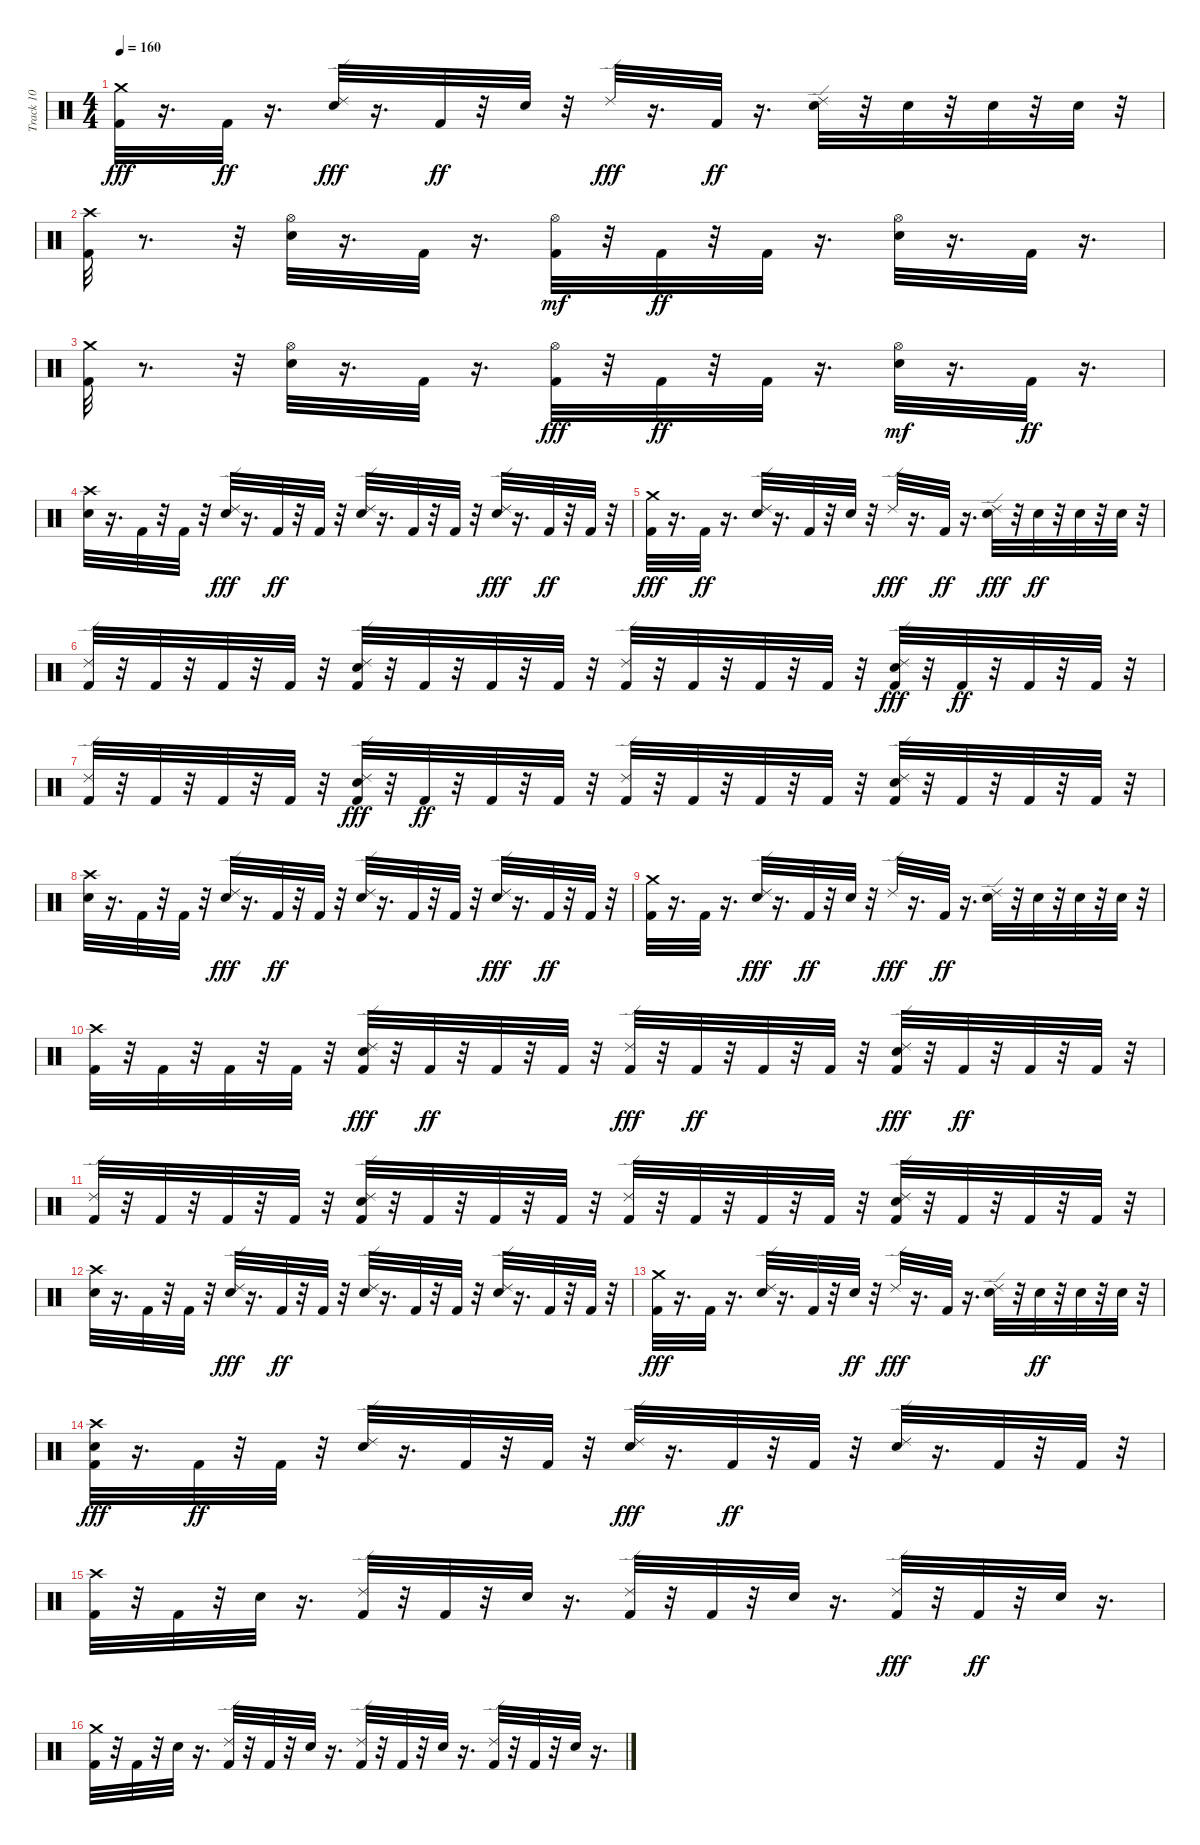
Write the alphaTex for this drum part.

\track ("Track 10" "Track 10") {instrument percussion}
\staff {score}
\articulation defaults
\ts (4 4)
\tempo 160
\clef neutral
\ks c
("Crash medium (hit)" "Kick (hit) 2").32{dy fff} r.16{d} "Kick (hit) 2".32{dy ff} r.16{d} ("Electric Snare (hit)" "Ride (edge) 2").32{dy fff} r.16{d} "Kick (hit) 2".32{dy ff} r.32 "Electric Snare (hit)".32 r.32 "Ride (edge) 2".32{dy fff} r.16{d} "Kick (hit) 2".32{dy ff} r.16{d} ("Ride (edge) 2" "Electric Snare (hit)").32 r.32 "Electric Snare (hit)".32 r.32 "Electric Snare (hit)".32 r.32 "Electric Snare (hit)".32 r.32 |
("Crash high (hit)" "Kick (hit) 2").32 r.8{d} r.32 ("Hi-Hat (open)" "Electric Snare (hit)").32 r.16{d} "Kick (hit) 2".32 r.16{d} ("Kick (hit) 2" "Hi-Hat (open)").32{dy mf} r.32 "Kick (hit) 2".32{dy ff} r.32 "Kick (hit) 2".32 r.16{d} ("Hi-Hat (open)" "Electric Snare (hit)").32 r.16{d} "Kick (hit) 2".32 r.16{d} |
("Crash medium (hit)" "Kick (hit) 2").32 r.8{d} r.32 ("Hi-Hat (open)" "Electric Snare (hit)").32 r.16{d} "Kick (hit) 2".32 r.16{d} ("Hi-Hat (open)" "Kick (hit) 2").32{dy fff} r.32 "Kick (hit) 2".32{dy ff} r.32 "Kick (hit) 2".32 r.16{d} ("Electric Snare (hit)" "Hi-Hat (open)").32{dy mf} r.16{d} "Kick (hit) 2".32{dy ff} r.16{d} |
("Crash high (hit)" "Electric Snare (hit)").32 r.16{d} "Kick (hit) 2".32 r.32 "Kick (hit) 2".32 r.32 ("Electric Snare (hit)" "Ride (edge) 2").32{dy fff} r.16{d} "Kick (hit) 2".32{dy ff} r.32 "Kick (hit) 2".32 r.32 ("Ride (edge) 2" "Electric Snare (hit)").32 r.16{d} "Kick (hit) 2".32 r.32 "Kick (hit) 2".32 r.32 ("Electric Snare (hit)" "Ride (edge) 2").32{dy fff} r.16{d} "Kick (hit) 2".32{dy ff} r.32 "Kick (hit) 2".32 r.32 |
("Kick (hit) 2" "Crash medium (hit)").32{dy fff} r.16{d} "Kick (hit) 2".32{dy ff} r.16{d} ("Ride (edge) 2" "Electric Snare (hit)").32 r.16{d} "Kick (hit) 2".32 r.32 "Electric Snare (hit)".32 r.32 "Ride (edge) 2".32{dy fff} r.16{d} "Kick (hit) 2".32{dy ff} r.16{d} ("Electric Snare (hit)" "Ride (edge) 2").32{dy fff} r.32 "Electric Snare (hit)".32{dy ff} r.32 "Electric Snare (hit)".32 r.32 "Electric Snare (hit)".32 r.32 |
("Ride (edge) 2" "Kick (hit) 2").32 r.32 "Kick (hit) 2".32 r.32 "Kick (hit) 2".32 r.32 "Kick (hit) 2".32 r.32 ("Ride (edge) 2" "Kick (hit) 2" "Electric Snare (hit)").32 r.32 "Kick (hit) 2".32 r.32 "Kick (hit) 2".32 r.32 "Kick (hit) 2".32 r.32 ("Ride (edge) 2" "Kick (hit) 2").32 r.32 "Kick (hit) 2".32 r.32 "Kick (hit) 2".32 r.32 "Kick (hit) 2".32 r.32 ("Kick (hit) 2" "Electric Snare (hit)" "Ride (edge) 2").32{dy fff} r.32 "Kick (hit) 2".32{dy ff} r.32 "Kick (hit) 2".32 r.32 "Kick (hit) 2".32 r.32 |
("Ride (edge) 2" "Kick (hit) 2").32 r.32 "Kick (hit) 2".32 r.32 "Kick (hit) 2".32 r.32 "Kick (hit) 2".32 r.32 ("Electric Snare (hit)" "Kick (hit) 2" "Ride (edge) 2").32{dy fff} r.32 "Kick (hit) 2".32{dy ff} r.32 "Kick (hit) 2".32 r.32 "Kick (hit) 2".32 r.32 ("Ride (edge) 2" "Kick (hit) 2").32 r.32 "Kick (hit) 2".32 r.32 "Kick (hit) 2".32 r.32 "Kick (hit) 2".32 r.32 ("Ride (edge) 2" "Kick (hit) 2" "Electric Snare (hit)").32 r.32 "Kick (hit) 2".32 r.32 "Kick (hit) 2".32 r.32 "Kick (hit) 2".32 r.32 |
("Crash high (hit)" "Electric Snare (hit)").32 r.16{d} "Kick (hit) 2".32 r.32 "Kick (hit) 2".32 r.32 ("Electric Snare (hit)" "Ride (edge) 2").32{dy fff} r.16{d} "Kick (hit) 2".32{dy ff} r.32 "Kick (hit) 2".32 r.32 ("Ride (edge) 2" "Electric Snare (hit)").32 r.16{d} "Kick (hit) 2".32 r.32 "Kick (hit) 2".32 r.32 ("Electric Snare (hit)" "Ride (edge) 2").32{dy fff} r.16{d} "Kick (hit) 2".32{dy ff} r.32 "Kick (hit) 2".32 r.32 |
("Kick (hit) 2" "Crash medium (hit)").32 r.16{d} "Kick (hit) 2".32 r.16{d} ("Electric Snare (hit)" "Ride (edge) 2").32{dy fff} r.16{d} "Kick (hit) 2".32{dy ff} r.32 "Electric Snare (hit)".32 r.32 "Ride (edge) 2".32{dy fff} r.16{d} "Kick (hit) 2".32{dy ff} r.16{d} ("Ride (edge) 2" "Electric Snare (hit)").32 r.32 "Electric Snare (hit)".32 r.32 "Electric Snare (hit)".32 r.32 "Electric Snare (hit)".32 r.32 |
("Crash high (hit)" "Kick (hit) 2").32 r.32 "Kick (hit) 2".32 r.32 "Kick (hit) 2".32 r.32 "Kick (hit) 2".32 r.32 ("Kick (hit) 2" "Electric Snare (hit)" "Ride (edge) 2").32{dy fff} r.32 "Kick (hit) 2".32{dy ff} r.32 "Kick (hit) 2".32 r.32 "Kick (hit) 2".32 r.32 ("Kick (hit) 2" "Ride (edge) 2").32{dy fff} r.32 "Kick (hit) 2".32{dy ff} r.32 "Kick (hit) 2".32 r.32 "Kick (hit) 2".32 r.32 ("Electric Snare (hit)" "Kick (hit) 2" "Ride (edge) 2").32{dy fff} r.32 "Kick (hit) 2".32{dy ff} r.32 "Kick (hit) 2".32 r.32 "Kick (hit) 2".32 r.32 |
("Ride (edge) 2" "Kick (hit) 2").32 r.32 "Kick (hit) 2".32 r.32 "Kick (hit) 2".32 r.32 "Kick (hit) 2".32 r.32 ("Ride (edge) 2" "Electric Snare (hit)" "Kick (hit) 2").32 r.32 "Kick (hit) 2".32 r.32 "Kick (hit) 2".32 r.32 "Kick (hit) 2".32 r.32 ("Ride (edge) 2" "Kick (hit) 2").32 r.32 "Kick (hit) 2".32 r.32 "Kick (hit) 2".32 r.32 "Kick (hit) 2".32 r.32 ("Kick (hit) 2" "Ride (edge) 2" "Electric Snare (hit)").32 r.32 "Kick (hit) 2".32 r.32 "Kick (hit) 2".32 r.32 "Kick (hit) 2".32 r.32 |
("Crash high (hit)" "Electric Snare (hit)").32 r.16{d} "Kick (hit) 2".32 r.32 "Kick (hit) 2".32 r.32 ("Electric Snare (hit)" "Ride (edge) 2").32{dy fff} r.16{d} "Kick (hit) 2".32{dy ff} r.32 "Kick (hit) 2".32 r.32 ("Ride (edge) 2" "Electric Snare (hit)").32 r.16{d} "Kick (hit) 2".32 r.32 "Kick (hit) 2".32 r.32 ("Ride (edge) 2" "Electric Snare (hit)").32 r.16{d} "Kick (hit) 2".32 r.32 "Kick (hit) 2".32 r.32 |
("Crash medium (hit)" "Kick (hit) 2").32{dy fff} r.16{d} "Kick (hit) 2".32 r.16{d} ("Electric Snare (hit)" "Ride (edge) 2").32 r.16{d} "Kick (hit) 2".32 r.32 "Electric Snare (hit)".32{dy ff} r.32 "Ride (edge) 2".32{dy fff} r.16{d} "Kick (hit) 2".32 r.16{d} ("Electric Snare (hit)" "Ride (edge) 2").32 r.32 "Electric Snare (hit)".32{dy ff} r.32 "Electric Snare (hit)".32 r.32 "Electric Snare (hit)".32 r.32 |
("Electric Snare (hit)" "Crash high (hit)" "Kick (hit) 2").32{dy fff} r.16{d} "Kick (hit) 2".32{dy ff} r.32 "Kick (hit) 2".32 r.32 ("Ride (edge) 2" "Electric Snare (hit)").32 r.16{d} "Kick (hit) 2".32 r.32 "Kick (hit) 2".32 r.32 ("Electric Snare (hit)" "Ride (edge) 2").32{dy fff} r.16{d} "Kick (hit) 2".32{dy ff} r.32 "Kick (hit) 2".32 r.32 ("Ride (edge) 2" "Electric Snare (hit)").32 r.16{d} "Kick (hit) 2".32 r.32 "Kick (hit) 2".32 r.32 |
("Crash high (hit)" "Kick (hit) 2").32 r.32 "Kick (hit) 2".32 r.32 "Electric Snare (hit)".32 r.16{d} ("Ride (edge) 2" "Kick (hit) 2").32 r.32 "Kick (hit) 2".32 r.32 "Electric Snare (hit)".32 r.16{d} ("Ride (edge) 2" "Kick (hit) 2").32 r.32 "Kick (hit) 2".32 r.32 "Electric Snare (hit)".32 r.16{d} ("Kick (hit) 2" "Ride (edge) 2").32{dy fff} r.32 "Kick (hit) 2".32{dy ff} r.32 "Electric Snare (hit)".32 r.16{d} |
("Crash medium (hit)" "Kick (hit) 2").32 r.32 "Kick (hit) 2".32 r.32 "Electric Snare (hit)".32 r.16{d} ("Ride (edge) 2" "Kick (hit) 2").32 r.32 "Kick (hit) 2".32 r.32 "Electric Snare (hit)".32 r.16{d} ("Ride (edge) 2" "Kick (hit) 2").32 r.32 "Kick (hit) 2".32 r.32 "Electric Snare (hit)".32 r.16{d} ("Ride (edge) 2" "Kick (hit) 2").32 r.32 "Kick (hit) 2".32 r.32 "Electric Snare (hit)".32 r.16{d}
